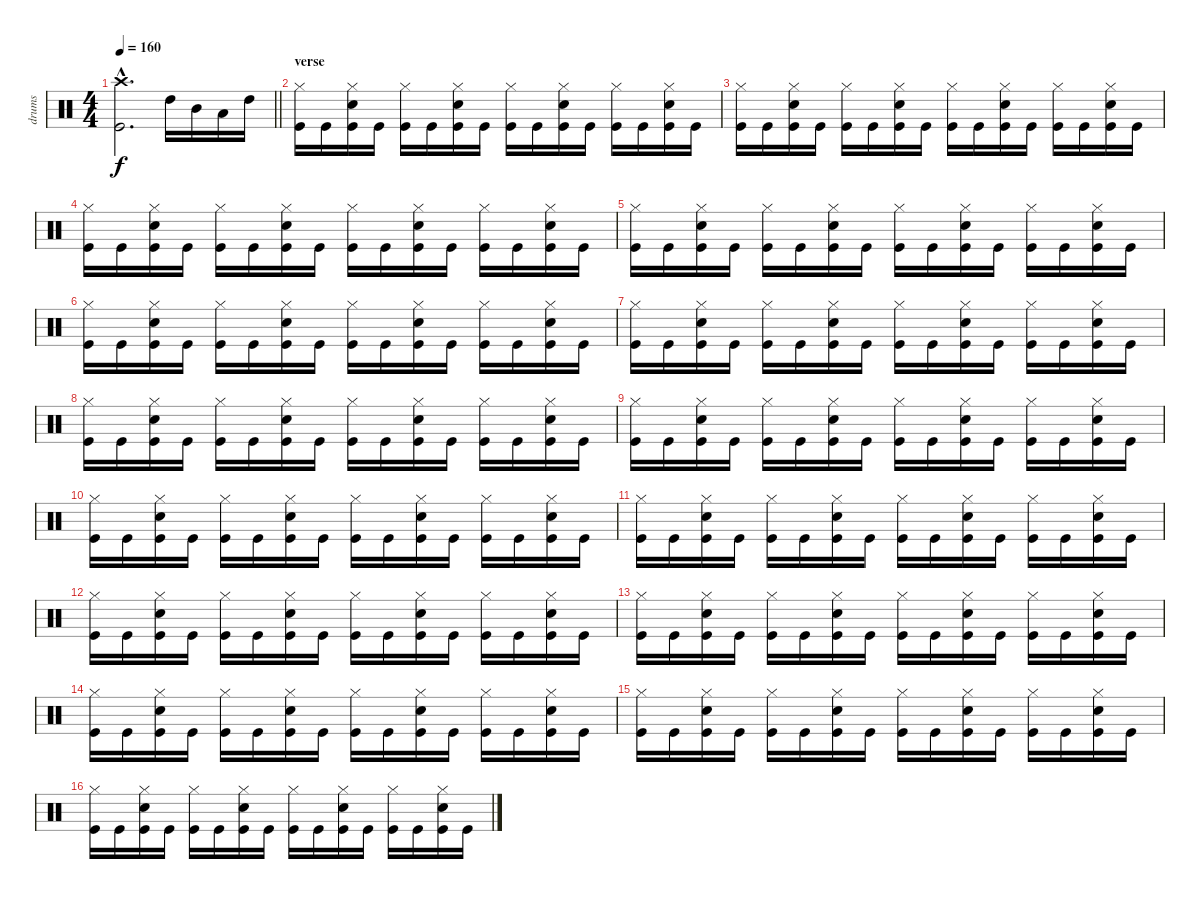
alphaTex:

\track ("drums" "drums") {instrument percussion}
\staff {score}
\articulation defaults
\ts (4 4)
\tempo 160
\clef neutral
\barLineRight lightlight
\ks c
("Kick (hit)"{hac} "Crash high (hit)"{hac}).2{d dy f} "High Tom (hit)".16 "Mid Tom (hit)".16 "Low Floor Tom (hit)".16 "High Tom (hit)".16 |
\section ("" "verse")
("Kick (hit)" "Hi-Hat (closed)").16 "Kick (hit)".16 ("Kick (hit)" "Hi-Hat (closed)" "Snare (hit) 2").16 "Kick (hit)".16 ("Kick (hit)" "Hi-Hat (closed)").16 "Kick (hit)".16 ("Kick (hit)" "Hi-Hat (closed)" "Snare (hit) 2").16 "Kick (hit)".16 ("Kick (hit)" "Hi-Hat (closed)").16 "Kick (hit)".16 ("Kick (hit)" "Hi-Hat (closed)" "Snare (hit) 2").16 "Kick (hit)".16 ("Kick (hit)" "Hi-Hat (closed)").16 "Kick (hit)".16 ("Kick (hit)" "Hi-Hat (closed)" "Snare (hit) 2").16 "Kick (hit)".16 |
("Kick (hit)" "Hi-Hat (closed)").16 "Kick (hit)".16 ("Kick (hit)" "Hi-Hat (closed)" "Snare (hit) 2").16 "Kick (hit)".16 ("Kick (hit)" "Hi-Hat (closed)").16 "Kick (hit)".16 ("Kick (hit)" "Hi-Hat (closed)" "Snare (hit) 2").16 "Kick (hit)".16 ("Kick (hit)" "Hi-Hat (closed)").16 "Kick (hit)".16 ("Kick (hit)" "Hi-Hat (closed)" "Snare (hit) 2").16 "Kick (hit)".16 ("Kick (hit)" "Hi-Hat (closed)").16 "Kick (hit)".16 ("Kick (hit)" "Hi-Hat (closed)" "Snare (hit) 2").16 "Kick (hit)".16 |
("Kick (hit)" "Hi-Hat (closed)").16 "Kick (hit)".16 ("Kick (hit)" "Hi-Hat (closed)" "Snare (hit) 2").16 "Kick (hit)".16 ("Kick (hit)" "Hi-Hat (closed)").16 "Kick (hit)".16 ("Kick (hit)" "Hi-Hat (closed)" "Snare (hit) 2").16 "Kick (hit)".16 ("Kick (hit)" "Hi-Hat (closed)").16 "Kick (hit)".16 ("Kick (hit)" "Hi-Hat (closed)" "Snare (hit) 2").16 "Kick (hit)".16 ("Kick (hit)" "Hi-Hat (closed)").16 "Kick (hit)".16 ("Kick (hit)" "Hi-Hat (closed)" "Snare (hit) 2").16 "Kick (hit)".16 |
("Kick (hit)" "Hi-Hat (closed)").16 "Kick (hit)".16 ("Kick (hit)" "Hi-Hat (closed)" "Snare (hit) 2").16 "Kick (hit)".16 ("Kick (hit)" "Hi-Hat (closed)").16 "Kick (hit)".16 ("Kick (hit)" "Hi-Hat (closed)" "Snare (hit) 2").16 "Kick (hit)".16 ("Kick (hit)" "Hi-Hat (closed)").16 "Kick (hit)".16 ("Kick (hit)" "Hi-Hat (closed)" "Snare (hit) 2").16 "Kick (hit)".16 ("Kick (hit)" "Hi-Hat (closed)").16 "Kick (hit)".16 ("Kick (hit)" "Hi-Hat (closed)" "Snare (hit) 2").16 "Kick (hit)".16 |
("Kick (hit)" "Hi-Hat (closed)").16 "Kick (hit)".16 ("Kick (hit)" "Hi-Hat (closed)" "Snare (hit) 2").16 "Kick (hit)".16 ("Kick (hit)" "Hi-Hat (closed)").16 "Kick (hit)".16 ("Kick (hit)" "Hi-Hat (closed)" "Snare (hit) 2").16 "Kick (hit)".16 ("Kick (hit)" "Hi-Hat (closed)").16 "Kick (hit)".16 ("Kick (hit)" "Hi-Hat (closed)" "Snare (hit) 2").16 "Kick (hit)".16 ("Kick (hit)" "Hi-Hat (closed)").16 "Kick (hit)".16 ("Kick (hit)" "Hi-Hat (closed)" "Snare (hit) 2").16 "Kick (hit)".16 |
("Kick (hit)" "Hi-Hat (closed)").16 "Kick (hit)".16 ("Kick (hit)" "Hi-Hat (closed)" "Snare (hit) 2").16 "Kick (hit)".16 ("Kick (hit)" "Hi-Hat (closed)").16 "Kick (hit)".16 ("Kick (hit)" "Hi-Hat (closed)" "Snare (hit) 2").16 "Kick (hit)".16 ("Kick (hit)" "Hi-Hat (closed)").16 "Kick (hit)".16 ("Kick (hit)" "Hi-Hat (closed)" "Snare (hit) 2").16 "Kick (hit)".16 ("Kick (hit)" "Hi-Hat (closed)").16 "Kick (hit)".16 ("Kick (hit)" "Hi-Hat (closed)" "Snare (hit) 2").16 "Kick (hit)".16 |
("Kick (hit)" "Hi-Hat (closed)").16 "Kick (hit)".16 ("Kick (hit)" "Hi-Hat (closed)" "Snare (hit) 2").16 "Kick (hit)".16 ("Kick (hit)" "Hi-Hat (closed)").16 "Kick (hit)".16 ("Kick (hit)" "Hi-Hat (closed)" "Snare (hit) 2").16 "Kick (hit)".16 ("Kick (hit)" "Hi-Hat (closed)").16 "Kick (hit)".16 ("Kick (hit)" "Hi-Hat (closed)" "Snare (hit) 2").16 "Kick (hit)".16 ("Kick (hit)" "Hi-Hat (closed)").16 "Kick (hit)".16 ("Kick (hit)" "Hi-Hat (closed)" "Snare (hit) 2").16 "Kick (hit)".16 |
("Kick (hit)" "Hi-Hat (closed)").16 "Kick (hit)".16 ("Kick (hit)" "Hi-Hat (closed)" "Snare (hit) 2").16 "Kick (hit)".16 ("Kick (hit)" "Hi-Hat (closed)").16 "Kick (hit)".16 ("Kick (hit)" "Hi-Hat (closed)" "Snare (hit) 2").16 "Kick (hit)".16 ("Kick (hit)" "Hi-Hat (closed)").16 "Kick (hit)".16 ("Kick (hit)" "Hi-Hat (closed)" "Snare (hit) 2").16 "Kick (hit)".16 ("Kick (hit)" "Hi-Hat (closed)").16 "Kick (hit)".16 ("Kick (hit)" "Hi-Hat (closed)" "Snare (hit) 2").16 "Kick (hit)".16 |
("Kick (hit)" "Hi-Hat (closed)").16 "Kick (hit)".16 ("Kick (hit)" "Hi-Hat (closed)" "Snare (hit) 2").16 "Kick (hit)".16 ("Kick (hit)" "Hi-Hat (closed)").16 "Kick (hit)".16 ("Kick (hit)" "Hi-Hat (closed)" "Snare (hit) 2").16 "Kick (hit)".16 ("Kick (hit)" "Hi-Hat (closed)").16 "Kick (hit)".16 ("Kick (hit)" "Hi-Hat (closed)" "Snare (hit) 2").16 "Kick (hit)".16 ("Kick (hit)" "Hi-Hat (closed)").16 "Kick (hit)".16 ("Kick (hit)" "Hi-Hat (closed)" "Snare (hit) 2").16 "Kick (hit)".16 |
("Kick (hit)" "Hi-Hat (closed)").16 "Kick (hit)".16 ("Kick (hit)" "Hi-Hat (closed)" "Snare (hit) 2").16 "Kick (hit)".16 ("Kick (hit)" "Hi-Hat (closed)").16 "Kick (hit)".16 ("Kick (hit)" "Hi-Hat (closed)" "Snare (hit) 2").16 "Kick (hit)".16 ("Kick (hit)" "Hi-Hat (closed)").16 "Kick (hit)".16 ("Kick (hit)" "Hi-Hat (closed)" "Snare (hit) 2").16 "Kick (hit)".16 ("Kick (hit)" "Hi-Hat (closed)").16 "Kick (hit)".16 ("Kick (hit)" "Hi-Hat (closed)" "Snare (hit) 2").16 "Kick (hit)".16 |
("Kick (hit)" "Hi-Hat (closed)").16 "Kick (hit)".16 ("Kick (hit)" "Hi-Hat (closed)" "Snare (hit) 2").16 "Kick (hit)".16 ("Kick (hit)" "Hi-Hat (closed)").16 "Kick (hit)".16 ("Kick (hit)" "Hi-Hat (closed)" "Snare (hit) 2").16 "Kick (hit)".16 ("Kick (hit)" "Hi-Hat (closed)").16 "Kick (hit)".16 ("Kick (hit)" "Hi-Hat (closed)" "Snare (hit) 2").16 "Kick (hit)".16 ("Kick (hit)" "Hi-Hat (closed)").16 "Kick (hit)".16 ("Kick (hit)" "Hi-Hat (closed)" "Snare (hit) 2").16 "Kick (hit)".16 |
("Kick (hit)" "Hi-Hat (closed)").16 "Kick (hit)".16 ("Kick (hit)" "Hi-Hat (closed)" "Snare (hit) 2").16 "Kick (hit)".16 ("Kick (hit)" "Hi-Hat (closed)").16 "Kick (hit)".16 ("Kick (hit)" "Hi-Hat (closed)" "Snare (hit) 2").16 "Kick (hit)".16 ("Kick (hit)" "Hi-Hat (closed)").16 "Kick (hit)".16 ("Kick (hit)" "Hi-Hat (closed)" "Snare (hit) 2").16 "Kick (hit)".16 ("Kick (hit)" "Hi-Hat (closed)").16 "Kick (hit)".16 ("Kick (hit)" "Hi-Hat (closed)" "Snare (hit) 2").16 "Kick (hit)".16 |
("Kick (hit)" "Hi-Hat (closed)").16 "Kick (hit)".16 ("Kick (hit)" "Hi-Hat (closed)" "Snare (hit) 2").16 "Kick (hit)".16 ("Kick (hit)" "Hi-Hat (closed)").16 "Kick (hit)".16 ("Kick (hit)" "Hi-Hat (closed)" "Snare (hit) 2").16 "Kick (hit)".16 ("Kick (hit)" "Hi-Hat (closed)").16 "Kick (hit)".16 ("Kick (hit)" "Hi-Hat (closed)" "Snare (hit) 2").16 "Kick (hit)".16 ("Kick (hit)" "Hi-Hat (closed)").16 "Kick (hit)".16 ("Kick (hit)" "Hi-Hat (closed)" "Snare (hit) 2").16 "Kick (hit)".16 |
("Kick (hit)" "Hi-Hat (closed)").16 "Kick (hit)".16 ("Kick (hit)" "Hi-Hat (closed)" "Snare (hit) 2").16 "Kick (hit)".16 ("Kick (hit)" "Hi-Hat (closed)").16 "Kick (hit)".16 ("Kick (hit)" "Hi-Hat (closed)" "Snare (hit) 2").16 "Kick (hit)".16 ("Kick (hit)" "Hi-Hat (closed)").16 "Kick (hit)".16 ("Kick (hit)" "Hi-Hat (closed)" "Snare (hit) 2").16 "Kick (hit)".16 ("Kick (hit)" "Hi-Hat (closed)").16 "Kick (hit)".16 ("Kick (hit)" "Hi-Hat (closed)" "Snare (hit) 2").16 "Kick (hit)".16 |
("Kick (hit)" "Hi-Hat (closed)").16 "Kick (hit)".16 ("Kick (hit)" "Hi-Hat (closed)" "Snare (hit) 2").16 "Kick (hit)".16 ("Kick (hit)" "Hi-Hat (closed)").16 "Kick (hit)".16 ("Kick (hit)" "Hi-Hat (closed)" "Snare (hit) 2").16 "Kick (hit)".16 ("Kick (hit)" "Hi-Hat (closed)").16 "Kick (hit)".16 ("Kick (hit)" "Hi-Hat (closed)" "Snare (hit) 2").16 "Kick (hit)".16 ("Kick (hit)" "Hi-Hat (closed)").16 "Kick (hit)".16 ("Kick (hit)" "Hi-Hat (closed)" "Snare (hit) 2").16 "Kick (hit)".16
